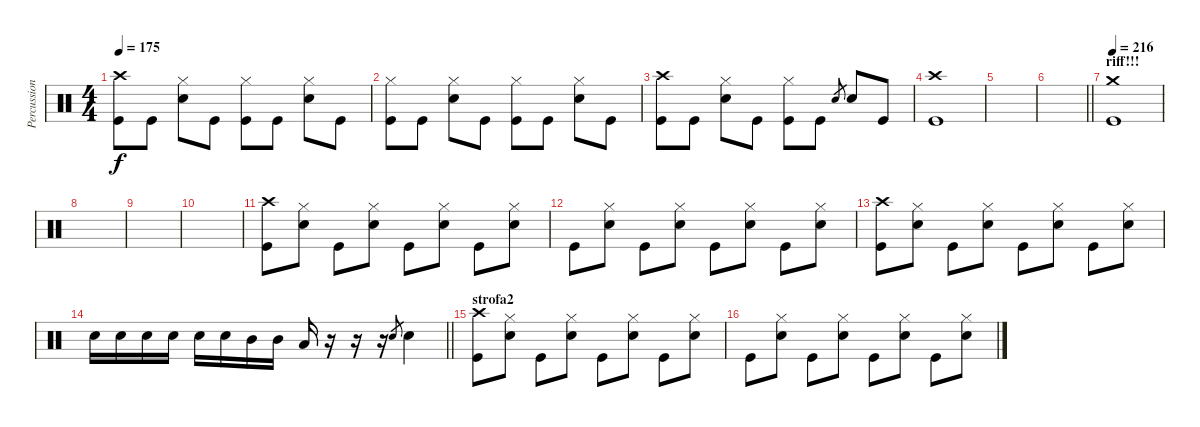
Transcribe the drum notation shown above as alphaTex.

\track ("Percussioni" "Percussion") {instrument percussion}
\staff {score}
\articulation defaults
\ts (4 4)
\tempo 175
\clef neutral
\ks c
("Crash high (hit)" "Kick (hit)").8{dy f} "Kick (hit)".8 ("Hi-Hat (closed)" "Snare (hit) 2").8 "Kick (hit)".8 ("Hi-Hat (closed)" "Kick (hit)").8 "Kick (hit)".8 ("Hi-Hat (closed)" "Snare (hit) 2").8 "Kick (hit)".8 |
("Hi-Hat (closed)" "Kick (hit)").8 "Kick (hit)".8 ("Hi-Hat (closed)" "Snare (hit) 2").8 "Kick (hit)".8 ("Hi-Hat (closed)" "Kick (hit)").8 "Kick (hit)".8 ("Hi-Hat (closed)" "Snare (hit) 2").8 "Kick (hit)".8 |
("Crash high (hit)" "Kick (hit)").8 "Kick (hit)".8 ("Hi-Hat (closed)" "Snare (hit) 2").8 "Kick (hit)".8 ("Hi-Hat (closed)" "Kick (hit)").8 "Kick (hit)".8 "Snare (hit) 2".8{gr} "Snare (hit) 2".8 "Kick (hit)".8 |
("Crash high (hit)" "Kick (hit)").1 |
|
\barLineRight lightlight
|
\section ("" "riff!!!")
\tempo 216
("Crash medium (hit)" "Kick (hit)").1 |
|
|
|
("Crash high (hit)" "Kick (hit)").8 ("Hi-Hat (closed)" "Snare (hit) 2").8 "Kick (hit)".8 ("Hi-Hat (closed)" "Snare (hit) 2").8 "Kick (hit)".8 ("Hi-Hat (closed)" "Snare (hit) 2").8 "Kick (hit)".8 ("Hi-Hat (closed)" "Snare (hit) 2").8 |
"Kick (hit)".8 ("Hi-Hat (closed)" "Snare (hit) 2").8 "Kick (hit)".8 ("Hi-Hat (closed)" "Snare (hit) 2").8 "Kick (hit)".8 ("Hi-Hat (closed)" "Snare (hit) 2").8 "Kick (hit)".8 ("Hi-Hat (closed)" "Snare (hit) 2").8 |
("Crash high (hit)" "Kick (hit)").8 ("Hi-Hat (closed)" "Snare (hit) 2").8 "Kick (hit)".8 ("Hi-Hat (closed)" "Snare (hit) 2").8 "Kick (hit)".8 ("Hi-Hat (closed)" "Snare (hit) 2").8 "Kick (hit)".8 ("Hi-Hat (closed)" "Snare (hit) 2").8 |
\barLineRight lightlight "Snare (hit) 2".16 "Snare (hit) 2".16 "Snare (hit) 2".16 "Snare (hit) 2".16 "Snare (hit) 2".16 "Snare (hit) 2".16 "Mid Tom (hit)".16 "Mid Tom (hit)".16 "Low Tom (hit)".16
r.16 r.16 r.16 "Snare (hit) 2".8{gr} "Snare (hit) 2".4 |
\section ("" "strofa2")
("Crash high (hit)" "Kick (hit)").8 ("Hi-Hat (closed)" "Snare (hit) 2").8 "Kick (hit)".8 ("Hi-Hat (closed)" "Snare (hit) 2").8 "Kick (hit)".8 ("Hi-Hat (closed)" "Snare (hit) 2").8 "Kick (hit)".8 ("Hi-Hat (closed)" "Snare (hit) 2").8 |
"Kick (hit)".8 ("Hi-Hat (closed)" "Snare (hit) 2").8 "Kick (hit)".8 ("Hi-Hat (closed)" "Snare (hit) 2").8 "Kick (hit)".8 ("Hi-Hat (closed)" "Snare (hit) 2").8 "Kick (hit)".8 ("Hi-Hat (closed)" "Snare (hit) 2").8
